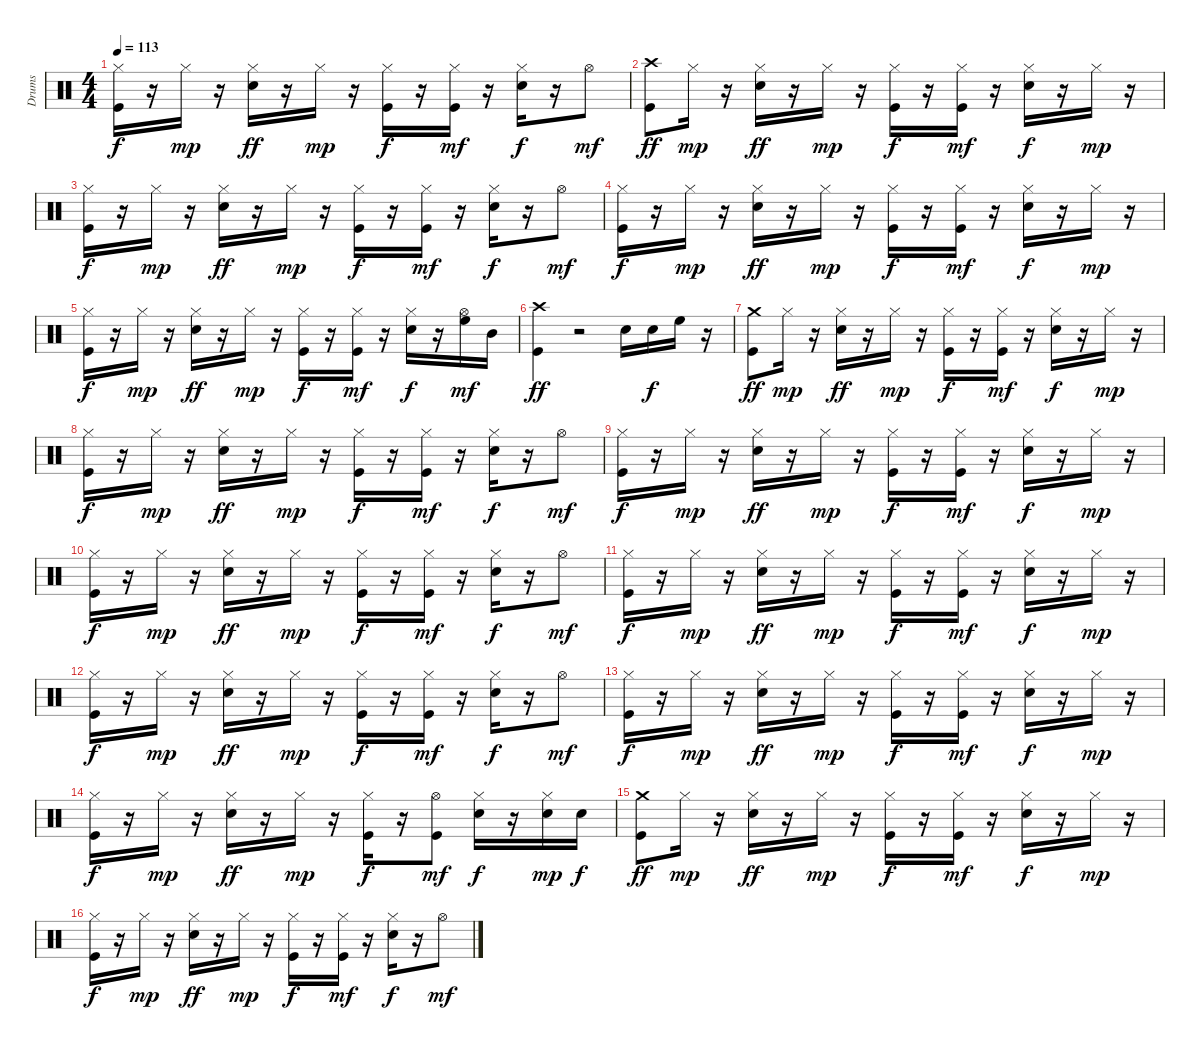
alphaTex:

\track ("Drums" "Drums") {instrument percussion}
\staff {score}
\articulation defaults
\ts (4 4)
\tempo 113
\clef neutral
\ks c
("Hi-Hat (closed)" "Kick (hit)").16{dy f} r.16 "Hi-Hat (closed)".16{dy mp} r.16 ("Electric Snare (hit)" "Hi-Hat (closed)").16{dy ff} r.16 "Hi-Hat (closed)".16{dy mp} r.16 ("Hi-Hat (closed)" "Kick (hit)").16{dy f} r.16 ("Hi-Hat (closed)" "Kick (hit)").16{dy mf} r.16 ("Electric Snare (hit)" "Hi-Hat (closed)").16{dy f} r.16 "Hi-Hat (open)".8{dy mf} |
("Crash high (hit)" "Kick (hit)").8{dy ff} "Hi-Hat (closed)".16{dy mp} r.16 ("Electric Snare (hit)" "Hi-Hat (closed)").16{dy ff} r.16 "Hi-Hat (closed)".16{dy mp} r.16 ("Hi-Hat (closed)" "Kick (hit)").16{dy f} r.16 ("Hi-Hat (closed)" "Kick (hit)").16{dy mf} r.16 ("Electric Snare (hit)" "Hi-Hat (closed)").16{dy f} r.16 "Hi-Hat (closed)".16{dy mp} r.16 |
("Hi-Hat (closed)" "Kick (hit)").16{dy f} r.16 "Hi-Hat (closed)".16{dy mp} r.16 ("Electric Snare (hit)" "Hi-Hat (closed)").16{dy ff} r.16 "Hi-Hat (closed)".16{dy mp} r.16 ("Hi-Hat (closed)" "Kick (hit)").16{dy f} r.16 ("Hi-Hat (closed)" "Kick (hit)").16{dy mf} r.16 ("Electric Snare (hit)" "Hi-Hat (closed)").16{dy f} r.16 "Hi-Hat (open)".8{dy mf} |
("Hi-Hat (closed)" "Kick (hit)").16{dy f} r.16 "Hi-Hat (closed)".16{dy mp} r.16 ("Electric Snare (hit)" "Hi-Hat (closed)").16{dy ff} r.16 "Hi-Hat (closed)".16{dy mp} r.16 ("Hi-Hat (closed)" "Kick (hit)").16{dy f} r.16 ("Hi-Hat (closed)" "Kick (hit)").16{dy mf} r.16 ("Electric Snare (hit)" "Hi-Hat (closed)").16{dy f} r.16 "Hi-Hat (closed)".16{dy mp} r.16 |
("Hi-Hat (closed)" "Kick (hit)").16{dy f} r.16 "Hi-Hat (closed)".16{dy mp} r.16 ("Electric Snare (hit)" "Hi-Hat (closed)").16{dy ff} r.16 "Hi-Hat (closed)".16{dy mp} r.16 ("Hi-Hat (closed)" "Kick (hit)").16{dy f} r.16 ("Hi-Hat (closed)" "Kick (hit)").16{dy mf} r.16 ("Electric Snare (hit)" "Hi-Hat (closed)").16{dy f} r.16 ("Hi-Hat (open)" "High Floor Tom (hit)").16{dy mf} "Mid Tom (hit)".16 |
("Crash high (hit)" "Kick (hit)").4{dy ff} r.2 "Electric Snare (hit)".16 "Electric Snare (hit)".16{dy f} "High Floor Tom (hit)".16 r.16 |
("Crash medium (hit)" "Kick (hit)").8{dy ff} "Hi-Hat (closed)".16{dy mp} r.16 ("Electric Snare (hit)" "Hi-Hat (closed)").16{dy ff} r.16 "Hi-Hat (closed)".16{dy mp} r.16 ("Hi-Hat (closed)" "Kick (hit)").16{dy f} r.16 ("Hi-Hat (closed)" "Kick (hit)").16{dy mf} r.16 ("Electric Snare (hit)" "Hi-Hat (closed)").16{dy f} r.16 "Hi-Hat (closed)".16{dy mp} r.16 |
("Hi-Hat (closed)" "Kick (hit)").16{dy f} r.16 "Hi-Hat (closed)".16{dy mp} r.16 ("Electric Snare (hit)" "Hi-Hat (closed)").16{dy ff} r.16 "Hi-Hat (closed)".16{dy mp} r.16 ("Hi-Hat (closed)" "Kick (hit)").16{dy f} r.16 ("Hi-Hat (closed)" "Kick (hit)").16{dy mf} r.16 ("Electric Snare (hit)" "Hi-Hat (closed)").16{dy f} r.16 "Hi-Hat (open)".8{dy mf} |
("Hi-Hat (closed)" "Kick (hit)").16{dy f} r.16 "Hi-Hat (closed)".16{dy mp} r.16 ("Electric Snare (hit)" "Hi-Hat (closed)").16{dy ff} r.16 "Hi-Hat (closed)".16{dy mp} r.16 ("Hi-Hat (closed)" "Kick (hit)").16{dy f} r.16 ("Hi-Hat (closed)" "Kick (hit)").16{dy mf} r.16 ("Electric Snare (hit)" "Hi-Hat (closed)").16{dy f} r.16 "Hi-Hat (closed)".16{dy mp} r.16 |
("Hi-Hat (closed)" "Kick (hit)").16{dy f} r.16 "Hi-Hat (closed)".16{dy mp} r.16 ("Electric Snare (hit)" "Hi-Hat (closed)").16{dy ff} r.16 "Hi-Hat (closed)".16{dy mp} r.16 ("Hi-Hat (closed)" "Kick (hit)").16{dy f} r.16 ("Hi-Hat (closed)" "Kick (hit)").16{dy mf} r.16 ("Electric Snare (hit)" "Hi-Hat (closed)").16{dy f} r.16 "Hi-Hat (open)".8{dy mf} |
("Hi-Hat (closed)" "Kick (hit)").16{dy f} r.16 "Hi-Hat (closed)".16{dy mp} r.16 ("Electric Snare (hit)" "Hi-Hat (closed)").16{dy ff} r.16 "Hi-Hat (closed)".16{dy mp} r.16 ("Hi-Hat (closed)" "Kick (hit)").16{dy f} r.16 ("Hi-Hat (closed)" "Kick (hit)").16{dy mf} r.16 ("Electric Snare (hit)" "Hi-Hat (closed)").16{dy f} r.16 "Hi-Hat (closed)".16{dy mp} r.16 |
("Hi-Hat (closed)" "Kick (hit)").16{dy f} r.16 "Hi-Hat (closed)".16{dy mp} r.16 ("Electric Snare (hit)" "Hi-Hat (closed)").16{dy ff} r.16 "Hi-Hat (closed)".16{dy mp} r.16 ("Hi-Hat (closed)" "Kick (hit)").16{dy f} r.16 ("Hi-Hat (closed)" "Kick (hit)").16{dy mf} r.16 ("Electric Snare (hit)" "Hi-Hat (closed)").16{dy f} r.16 "Hi-Hat (open)".8{dy mf} |
("Hi-Hat (closed)" "Kick (hit)").16{dy f} r.16 "Hi-Hat (closed)".16{dy mp} r.16 ("Electric Snare (hit)" "Hi-Hat (closed)").16{dy ff} r.16 "Hi-Hat (closed)".16{dy mp} r.16 ("Hi-Hat (closed)" "Kick (hit)").16{dy f} r.16 ("Hi-Hat (closed)" "Kick (hit)").16{dy mf} r.16 ("Electric Snare (hit)" "Hi-Hat (closed)").16{dy f} r.16 "Hi-Hat (closed)".16{dy mp} r.16 |
("Hi-Hat (closed)" "Kick (hit)").16{dy f} r.16 "Hi-Hat (closed)".16{dy mp} r.16 ("Electric Snare (hit)" "Hi-Hat (closed)").16{dy ff} r.16 "Hi-Hat (closed)".16{dy mp} r.16 ("Hi-Hat (closed)" "Kick (hit)").16{dy f} r.16 ("Hi-Hat (open)" "Kick (hit)").8{dy mf} ("Electric Snare (hit)" "Hi-Hat (closed)").16{dy f} r.16 ("Electric Snare (hit)" "Hi-Hat (closed)").16{dy mp} "Electric Snare (hit)".16{dy f} |
("Crash medium (hit)" "Kick (hit)").8{dy ff} "Hi-Hat (closed)".16{dy mp} r.16 ("Electric Snare (hit)" "Hi-Hat (closed)").16{dy ff} r.16 "Hi-Hat (closed)".16{dy mp} r.16 ("Hi-Hat (closed)" "Kick (hit)").16{dy f} r.16 ("Hi-Hat (closed)" "Kick (hit)").16{dy mf} r.16 ("Electric Snare (hit)" "Hi-Hat (closed)").16{dy f} r.16 "Hi-Hat (closed)".16{dy mp} r.16 |
("Hi-Hat (closed)" "Kick (hit)").16{dy f} r.16 "Hi-Hat (closed)".16{dy mp} r.16 ("Electric Snare (hit)" "Hi-Hat (closed)").16{dy ff} r.16 "Hi-Hat (closed)".16{dy mp} r.16 ("Hi-Hat (closed)" "Kick (hit)").16{dy f} r.16 ("Hi-Hat (closed)" "Kick (hit)").16{dy mf} r.16 ("Electric Snare (hit)" "Hi-Hat (closed)").16{dy f} r.16 "Hi-Hat (open)".8{dy mf}
